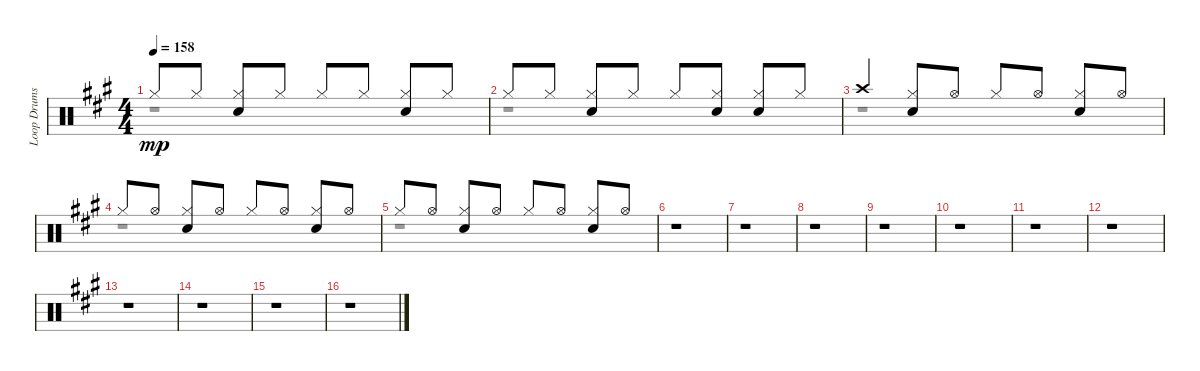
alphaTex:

\track ("Loop Drums" "Loop Drums") {instrument percussion}
\staff {score}
\articulation defaults
\voice
\ts (4 4)
\tempo 158
\clef neutral
\ks a "Hi-Hat (closed)".8{dy mp} "Hi-Hat (closed)".8
("Hi-Hat (closed)" "Electric Snare (hit)").8 "Hi-Hat (closed)".8 "Hi-Hat (closed)".8 "Hi-Hat (closed)".8 ("Hi-Hat (closed)" "Electric Snare (hit)").8 "Hi-Hat (closed)".8 |
"Hi-Hat (closed)".8 "Hi-Hat (closed)".8 ("Hi-Hat (closed)" "Electric Snare (hit)").8 "Hi-Hat (closed)".8 "Hi-Hat (closed)".8 ("Hi-Hat (closed)" "Electric Snare (hit)").8 ("Hi-Hat (closed)" "Electric Snare (hit)").8 "Hi-Hat (closed)".8 |
"Crash high (hit)".4 ("Hi-Hat (closed)" "Electric Snare (hit)").8 "Hi-Hat (open)".8 "Hi-Hat (closed)".8 "Hi-Hat (open)".8 ("Hi-Hat (closed)" "Electric Snare (hit)").8 "Hi-Hat (open)".8 |
"Hi-Hat (closed)".8 "Hi-Hat (open)".8 ("Hi-Hat (closed)" "Electric Snare (hit)").8 "Hi-Hat (open)".8 "Hi-Hat (closed)".8 "Hi-Hat (open)".8 ("Hi-Hat (closed)" "Electric Snare (hit)").8 "Hi-Hat (open)".8 |
"Hi-Hat (closed)".8 "Hi-Hat (open)".8 ("Hi-Hat (closed)" "Electric Snare (hit)").8 "Hi-Hat (open)".8 "Hi-Hat (closed)".8 "Hi-Hat (open)".8 ("Hi-Hat (closed)" "Electric Snare (hit)").8 "Hi-Hat (open)".8 |
r.1 |
r.1 |
r.1 |
r.1 |
r.1 |
r.1 |
r.1 |
r.1 |
r.1 |
r.1 |
r.1
\voice
\clef neutral
\ottava regular
\simile none
\ks a
r.1{dy f} |
r.1 |
r.1 |
r.1 |
r.1 |
r.1 |
r.1 |
r.1 |
r.1 |
r.1 |
r.1 |
r.1 |
r.1 |
r.1 |
|
